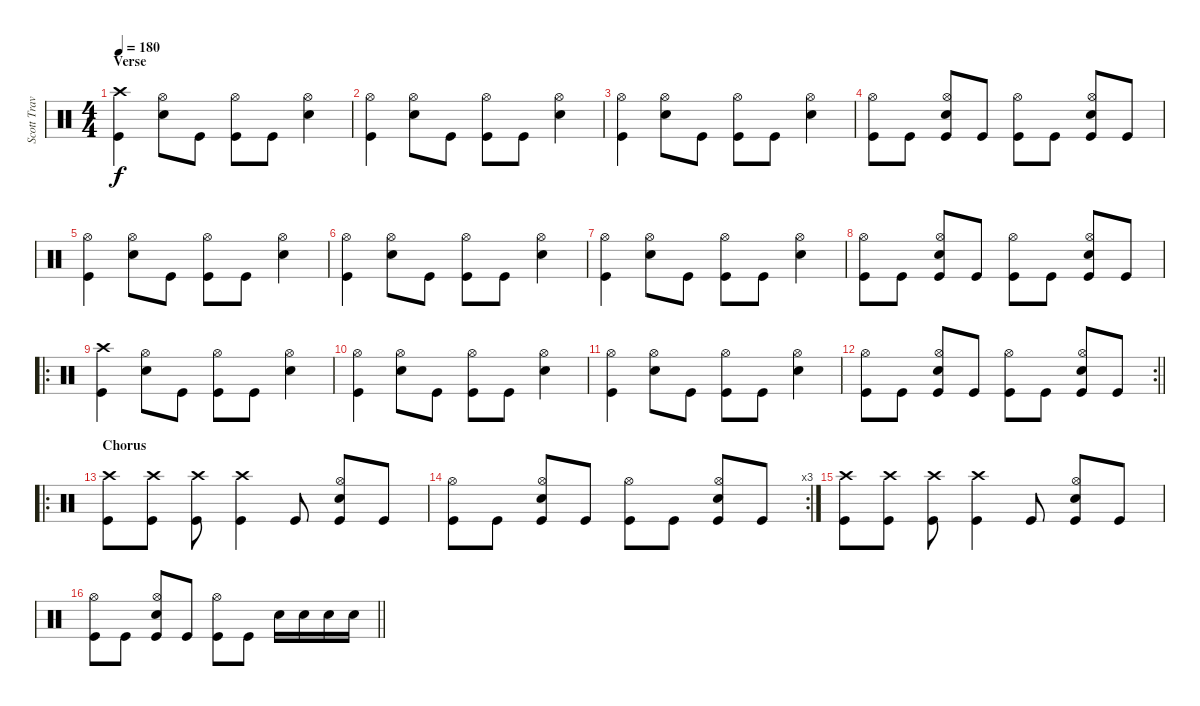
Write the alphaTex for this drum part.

\track ("Scott Travis" "Scott Trav") {instrument percussion}
\staff {score}
\articulation defaults
\ts (4 4)
\section ("" "Verse")
\tempo 180
\clef neutral
\ks c
("Crash high (hit)" "Kick (hit)").4{dy f} ("Hi-Hat (open)" "Snare (hit) 2").8 "Kick (hit)".8 ("Hi-Hat (open)" "Kick (hit)").8 "Kick (hit)".8 ("Hi-Hat (open)" "Snare (hit) 2").4 |
("Hi-Hat (open)" "Kick (hit)").4 ("Hi-Hat (open)" "Snare (hit) 2").8 "Kick (hit)".8 ("Hi-Hat (open)" "Kick (hit)").8 "Kick (hit)".8 ("Hi-Hat (open)" "Snare (hit) 2").4 |
("Hi-Hat (open)" "Kick (hit)").4 ("Hi-Hat (open)" "Snare (hit) 2").8 "Kick (hit)".8 ("Hi-Hat (open)" "Kick (hit)").8 "Kick (hit)".8 ("Hi-Hat (open)" "Snare (hit) 2").4 |
("Hi-Hat (open)" "Kick (hit)").8 "Kick (hit)".8 ("Hi-Hat (open)" "Snare (hit) 2" "Kick (hit)").8 "Kick (hit)".8 ("Hi-Hat (open)" "Kick (hit)").8 "Kick (hit)".8 ("Hi-Hat (open)" "Snare (hit) 2" "Kick (hit)").8 "Kick (hit)".8 |
("Hi-Hat (open)" "Kick (hit)").4 ("Hi-Hat (open)" "Snare (hit) 2").8 "Kick (hit)".8 ("Hi-Hat (open)" "Kick (hit)").8 "Kick (hit)".8 ("Hi-Hat (open)" "Snare (hit) 2").4 |
("Hi-Hat (open)" "Kick (hit)").4 ("Hi-Hat (open)" "Snare (hit) 2").8 "Kick (hit)".8 ("Hi-Hat (open)" "Kick (hit)").8 "Kick (hit)".8 ("Hi-Hat (open)" "Snare (hit) 2").4 |
("Hi-Hat (open)" "Kick (hit)").4 ("Hi-Hat (open)" "Snare (hit) 2").8 "Kick (hit)".8 ("Hi-Hat (open)" "Kick (hit)").8 "Kick (hit)".8 ("Hi-Hat (open)" "Snare (hit) 2").4 |
("Hi-Hat (open)" "Kick (hit)").8 "Kick (hit)".8 ("Hi-Hat (open)" "Snare (hit) 2" "Kick (hit)").8 "Kick (hit)".8 ("Hi-Hat (open)" "Kick (hit)").8 "Kick (hit)".8 ("Hi-Hat (open)" "Snare (hit) 2" "Kick (hit)").8 "Kick (hit)".8 |
\ro
("Crash high (hit)" "Kick (hit)").4 ("Hi-Hat (open)" "Snare (hit) 2").8 "Kick (hit)".8 ("Hi-Hat (open)" "Kick (hit)").8 "Kick (hit)".8 ("Hi-Hat (open)" "Snare (hit) 2").4 |
("Hi-Hat (open)" "Kick (hit)").4 ("Hi-Hat (open)" "Snare (hit) 2").8 "Kick (hit)".8 ("Hi-Hat (open)" "Kick (hit)").8 "Kick (hit)".8 ("Hi-Hat (open)" "Snare (hit) 2").4 |
("Hi-Hat (open)" "Kick (hit)").4 ("Hi-Hat (open)" "Snare (hit) 2").8 "Kick (hit)".8 ("Hi-Hat (open)" "Kick (hit)").8 "Kick (hit)".8 ("Hi-Hat (open)" "Snare (hit) 2").4 |
\rc 2
\barLineRight lightlight
("Hi-Hat (open)" "Kick (hit)").8 "Kick (hit)".8 ("Hi-Hat (open)" "Snare (hit) 2" "Kick (hit)").8 "Kick (hit)".8 ("Hi-Hat (open)" "Kick (hit)").8 "Kick (hit)".8 ("Hi-Hat (open)" "Snare (hit) 2" "Kick (hit)").8 "Kick (hit)".8 |
\ro
\section ("" "Chorus")
("Crash high (hit)" "Kick (hit)").8 ("Crash high (hit)" "Kick (hit)").8 ("Crash high (hit)" "Kick (hit)").8 ("Crash high (hit)" "Kick (hit)").4 "Kick (hit)".8 ("Hi-Hat (open)" "Snare (hit) 2" "Kick (hit)").8 "Kick (hit)".8 |
\rc 3
("Hi-Hat (open)" "Kick (hit)").8 "Kick (hit)".8 ("Hi-Hat (open)" "Snare (hit) 2" "Kick (hit)").8 "Kick (hit)".8 ("Hi-Hat (open)" "Kick (hit)").8 "Kick (hit)".8 ("Hi-Hat (open)" "Snare (hit) 2" "Kick (hit)").8 "Kick (hit)".8 |
("Crash high (hit)" "Kick (hit)").8 ("Crash high (hit)" "Kick (hit)").8 ("Crash high (hit)" "Kick (hit)").8 ("Crash high (hit)" "Kick (hit)").4 "Kick (hit)".8 ("Hi-Hat (open)" "Snare (hit) 2" "Kick (hit)").8 "Kick (hit)".8 |
\barLineRight lightlight
("Hi-Hat (open)" "Kick (hit)").8 "Kick (hit)".8 ("Hi-Hat (open)" "Snare (hit) 2" "Kick (hit)").8 "Kick (hit)".8 ("Hi-Hat (open)" "Kick (hit)").8 "Kick (hit)".8 "Snare (hit) 2".16 "Snare (hit) 2".16 "Snare (hit) 2".16 "Snare (hit) 2".16
